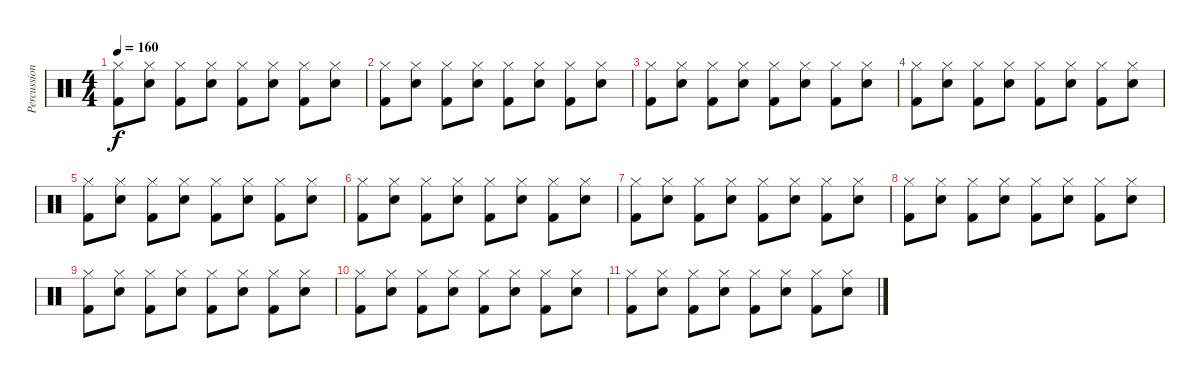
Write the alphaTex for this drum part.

\track ("Percussions" "Percussion") {instrument percussion}
\staff {score}
\articulation defaults
\ts (4 4)
\tempo 160
\clef neutral
\ks c
("Hi-Hat (closed)" "Kick (hit) 2").8{dy f} ("Hi-Hat (closed)" "Electric Snare (hit)").8 ("Hi-Hat (closed)" "Kick (hit) 2").8 ("Hi-Hat (closed)" "Electric Snare (hit)").8 ("Hi-Hat (closed)" "Kick (hit) 2").8 ("Hi-Hat (closed)" "Electric Snare (hit)").8 ("Hi-Hat (closed)" "Kick (hit) 2").8 ("Hi-Hat (closed)" "Electric Snare (hit)").8 |
("Hi-Hat (closed)" "Kick (hit) 2").8 ("Hi-Hat (closed)" "Electric Snare (hit)").8 ("Hi-Hat (closed)" "Kick (hit) 2").8 ("Hi-Hat (closed)" "Electric Snare (hit)").8 ("Hi-Hat (closed)" "Kick (hit) 2").8 ("Hi-Hat (closed)" "Electric Snare (hit)").8 ("Hi-Hat (closed)" "Kick (hit) 2").8 ("Hi-Hat (closed)" "Electric Snare (hit)").8 |
("Hi-Hat (closed)" "Kick (hit) 2").8 ("Hi-Hat (closed)" "Electric Snare (hit)").8 ("Hi-Hat (closed)" "Kick (hit) 2").8 ("Hi-Hat (closed)" "Electric Snare (hit)").8 ("Hi-Hat (closed)" "Kick (hit) 2").8 ("Hi-Hat (closed)" "Electric Snare (hit)").8 ("Hi-Hat (closed)" "Kick (hit) 2").8 ("Hi-Hat (closed)" "Electric Snare (hit)").8 |
("Hi-Hat (closed)" "Kick (hit) 2").8 ("Hi-Hat (closed)" "Electric Snare (hit)").8 ("Hi-Hat (closed)" "Kick (hit) 2").8 ("Hi-Hat (closed)" "Electric Snare (hit)").8 ("Hi-Hat (closed)" "Kick (hit) 2").8 ("Hi-Hat (closed)" "Electric Snare (hit)").8 ("Hi-Hat (closed)" "Kick (hit) 2").8 ("Hi-Hat (closed)" "Electric Snare (hit)").8 |
("Hi-Hat (closed)" "Kick (hit) 2").8 ("Hi-Hat (closed)" "Electric Snare (hit)").8 ("Hi-Hat (closed)" "Kick (hit) 2").8 ("Hi-Hat (closed)" "Electric Snare (hit)").8 ("Hi-Hat (closed)" "Kick (hit) 2").8 ("Hi-Hat (closed)" "Electric Snare (hit)").8 ("Hi-Hat (closed)" "Kick (hit) 2").8 ("Hi-Hat (closed)" "Electric Snare (hit)").8 |
("Hi-Hat (closed)" "Kick (hit) 2").8 ("Hi-Hat (closed)" "Electric Snare (hit)").8 ("Hi-Hat (closed)" "Kick (hit) 2").8 ("Hi-Hat (closed)" "Electric Snare (hit)").8 ("Hi-Hat (closed)" "Kick (hit) 2").8 ("Hi-Hat (closed)" "Electric Snare (hit)").8 ("Hi-Hat (closed)" "Kick (hit) 2").8 ("Hi-Hat (closed)" "Electric Snare (hit)").8 |
("Hi-Hat (closed)" "Kick (hit) 2").8 ("Hi-Hat (closed)" "Electric Snare (hit)").8 ("Hi-Hat (closed)" "Kick (hit) 2").8 ("Hi-Hat (closed)" "Electric Snare (hit)").8 ("Hi-Hat (closed)" "Kick (hit) 2").8 ("Hi-Hat (closed)" "Electric Snare (hit)").8 ("Hi-Hat (closed)" "Kick (hit) 2").8 ("Hi-Hat (closed)" "Electric Snare (hit)").8 |
("Hi-Hat (closed)" "Kick (hit) 2").8 ("Hi-Hat (closed)" "Electric Snare (hit)").8 ("Hi-Hat (closed)" "Kick (hit) 2").8 ("Hi-Hat (closed)" "Electric Snare (hit)").8 ("Hi-Hat (closed)" "Kick (hit) 2").8 ("Hi-Hat (closed)" "Electric Snare (hit)").8 ("Hi-Hat (closed)" "Kick (hit) 2").8 ("Hi-Hat (closed)" "Electric Snare (hit)").8 |
("Hi-Hat (closed)" "Kick (hit) 2").8 ("Hi-Hat (closed)" "Electric Snare (hit)").8 ("Hi-Hat (closed)" "Kick (hit) 2").8 ("Hi-Hat (closed)" "Electric Snare (hit)").8 ("Hi-Hat (closed)" "Kick (hit) 2").8 ("Hi-Hat (closed)" "Electric Snare (hit)").8 ("Hi-Hat (closed)" "Kick (hit) 2").8 ("Hi-Hat (closed)" "Electric Snare (hit)").8 |
("Hi-Hat (closed)" "Kick (hit) 2").8 ("Hi-Hat (closed)" "Electric Snare (hit)").8 ("Hi-Hat (closed)" "Kick (hit) 2").8 ("Hi-Hat (closed)" "Electric Snare (hit)").8 ("Hi-Hat (closed)" "Kick (hit) 2").8 ("Hi-Hat (closed)" "Electric Snare (hit)").8 ("Hi-Hat (closed)" "Kick (hit) 2").8 ("Hi-Hat (closed)" "Electric Snare (hit)").8 |
("Hi-Hat (closed)" "Kick (hit) 2").8 ("Hi-Hat (closed)" "Electric Snare (hit)").8 ("Hi-Hat (closed)" "Kick (hit) 2").8 ("Hi-Hat (closed)" "Electric Snare (hit)").8 ("Hi-Hat (closed)" "Kick (hit) 2").8 ("Hi-Hat (closed)" "Electric Snare (hit)").8 ("Hi-Hat (closed)" "Kick (hit) 2").8 ("Hi-Hat (closed)" "Electric Snare (hit)").8
